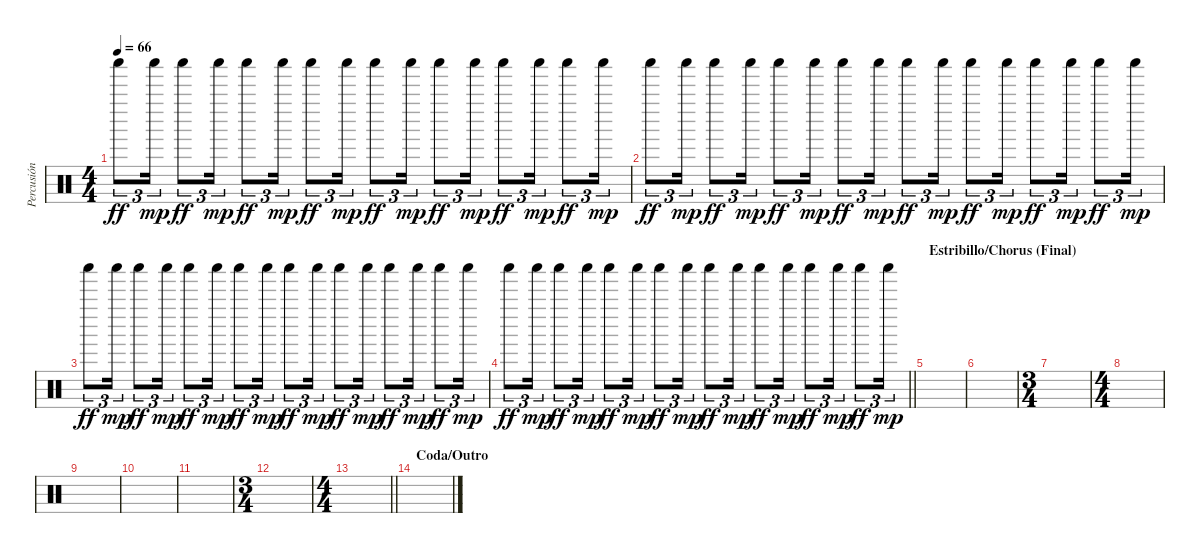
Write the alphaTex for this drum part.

\track ("Percusión (Brit Turner)" "Percusión ") {instrument percussion}
\staff {score}
\articulation defaults
\ts (4 4)
\tempo 66
\clef neutral
\ks c "Shaker (hit)".8{tu (3 2) dy ff} "Shaker (hit)".16{tu (3 2) dy mp} "Shaker (hit)".8{tu (3 2) dy ff} "Shaker (hit)".16{tu (3 2) dy mp} "Shaker (hit)".8{tu (3 2) dy ff} "Shaker (hit)".16{tu (3 2) dy mp} "Shaker (hit)".8{tu (3 2) dy ff} "Shaker (hit)".16{tu (3 2) dy mp} "Shaker (hit)".8{tu (3 2) dy ff} "Shaker (hit)".16{tu (3 2) dy mp} "Shaker (hit)".8{tu (3 2) dy ff} "Shaker (hit)".16{tu (3 2) dy mp} "Shaker (hit)".8{tu (3 2) dy ff} "Shaker (hit)".16{tu (3 2) dy mp} "Shaker (hit)".8{tu (3 2) dy ff} "Shaker (hit)".16{tu (3 2) dy mp}
|
"Shaker (hit)".8{tu (3 2) dy ff} "Shaker (hit)".16{tu (3 2) dy mp} "Shaker (hit)".8{tu (3 2) dy ff} "Shaker (hit)".16{tu (3 2) dy mp} "Shaker (hit)".8{tu (3 2) dy ff} "Shaker (hit)".16{tu (3 2) dy mp} "Shaker (hit)".8{tu (3 2) dy ff} "Shaker (hit)".16{tu (3 2) dy mp} "Shaker (hit)".8{tu (3 2) dy ff} "Shaker (hit)".16{tu (3 2) dy mp} "Shaker (hit)".8{tu (3 2) dy ff} "Shaker (hit)".16{tu (3 2) dy mp} "Shaker (hit)".8{tu (3 2) dy ff} "Shaker (hit)".16{tu (3 2) dy mp} "Shaker (hit)".8{tu (3 2) dy ff} "Shaker (hit)".16{tu (3 2) dy mp} |
"Shaker (hit)".8{tu (3 2) dy ff} "Shaker (hit)".16{tu (3 2) dy mp} "Shaker (hit)".8{tu (3 2) dy ff} "Shaker (hit)".16{tu (3 2) dy mp} "Shaker (hit)".8{tu (3 2) dy ff} "Shaker (hit)".16{tu (3 2) dy mp} "Shaker (hit)".8{tu (3 2) dy ff} "Shaker (hit)".16{tu (3 2) dy mp} "Shaker (hit)".8{tu (3 2) dy ff} "Shaker (hit)".16{tu (3 2) dy mp} "Shaker (hit)".8{tu (3 2) dy ff} "Shaker (hit)".16{tu (3 2) dy mp} "Shaker (hit)".8{tu (3 2) dy ff} "Shaker (hit)".16{tu (3 2) dy mp} "Shaker (hit)".8{tu (3 2) dy ff} "Shaker (hit)".16{tu (3 2) dy mp} |
\barLineRight lightlight "Shaker (hit)".8{tu (3 2) dy ff} "Shaker (hit)".16{tu (3 2) dy mp} "Shaker (hit)".8{tu (3 2) dy ff} "Shaker (hit)".16{tu (3 2) dy mp} "Shaker (hit)".8{tu (3 2) dy ff} "Shaker (hit)".16{tu (3 2) dy mp} "Shaker (hit)".8{tu (3 2) dy ff} "Shaker (hit)".16{tu (3 2) dy mp} "Shaker (hit)".8{tu (3 2) dy ff} "Shaker (hit)".16{tu (3 2) dy mp} "Shaker (hit)".8{tu (3 2) dy ff} "Shaker (hit)".16{tu (3 2) dy mp} "Shaker (hit)".8{tu (3 2) dy ff} "Shaker (hit)".16{tu (3 2) dy mp} "Shaker (hit)".8{tu (3 2) dy ff} "Shaker (hit)".16{tu (3 2) dy mp}
|
\section ("" "Estribillo/Chorus (Final)")
|
|
\ts (3 4)
|
\ts (4 4)
|
|
|
|
\ts (3 4)
|
\ts (4 4)
\barLineRight lightlight
|
\section ("" "Coda/Outro")
